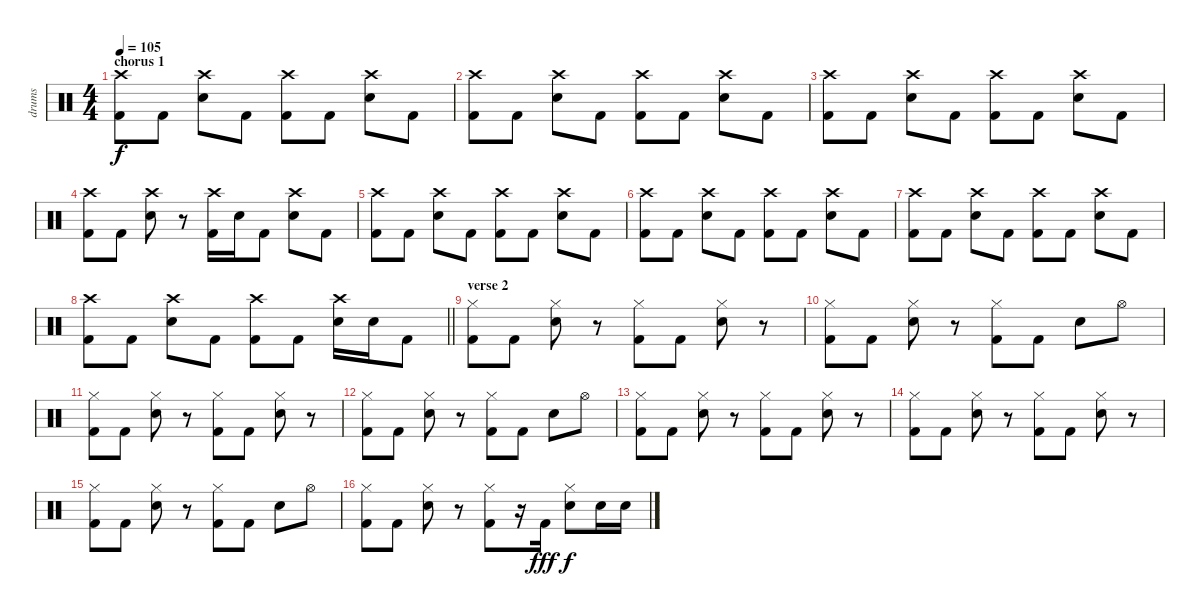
\track ("drums" "drums") {instrument percussion}
\staff {score}
\articulation defaults
\ts (4 4)
\section ("" "chorus 1")
\tempo 105
\clef neutral
\ks c
("Crash high (hit)" "Kick (hit) 2").8{dy f} "Kick (hit) 2".8 ("Crash high (hit)" "Electric Snare (hit)").8 "Kick (hit) 2".8 ("Crash high (hit)" "Kick (hit) 2").8 "Kick (hit) 2".8 ("Crash high (hit)" "Electric Snare (hit)").8 "Kick (hit) 2".8 |
("Crash high (hit)" "Kick (hit) 2").8 "Kick (hit) 2".8 ("Crash high (hit)" "Electric Snare (hit)").8 "Kick (hit) 2".8 ("Crash high (hit)" "Kick (hit) 2").8 "Kick (hit) 2".8 ("Crash high (hit)" "Electric Snare (hit)").8 "Kick (hit) 2".8 |
("Crash high (hit)" "Kick (hit) 2").8 "Kick (hit) 2".8 ("Crash high (hit)" "Electric Snare (hit)").8 "Kick (hit) 2".8 ("Crash high (hit)" "Kick (hit) 2").8 "Kick (hit) 2".8 ("Crash high (hit)" "Electric Snare (hit)").8 "Kick (hit) 2".8 |
("Crash high (hit)" "Kick (hit) 2").8 "Kick (hit) 2".8 ("Crash high (hit)" "Electric Snare (hit)").8 r.8 ("Crash high (hit)" "Kick (hit) 2").16 "Electric Snare (hit)".16 "Kick (hit) 2".8 ("Crash high (hit)" "Electric Snare (hit)").8 "Kick (hit) 2".8 |
("Crash high (hit)" "Kick (hit) 2").8 "Kick (hit) 2".8 ("Crash high (hit)" "Electric Snare (hit)").8 "Kick (hit) 2".8 ("Crash high (hit)" "Kick (hit) 2").8 "Kick (hit) 2".8 ("Crash high (hit)" "Electric Snare (hit)").8 "Kick (hit) 2".8 |
("Crash high (hit)" "Kick (hit) 2").8 "Kick (hit) 2".8 ("Crash high (hit)" "Electric Snare (hit)").8 "Kick (hit) 2".8 ("Crash high (hit)" "Kick (hit) 2").8 "Kick (hit) 2".8 ("Crash high (hit)" "Electric Snare (hit)").8 "Kick (hit) 2".8 |
("Crash high (hit)" "Kick (hit) 2").8 "Kick (hit) 2".8 ("Crash high (hit)" "Electric Snare (hit)").8 "Kick (hit) 2".8 ("Crash high (hit)" "Kick (hit) 2").8 "Kick (hit) 2".8 ("Crash high (hit)" "Electric Snare (hit)").8 "Kick (hit) 2".8 |
\barLineRight lightlight
("Crash high (hit)" "Kick (hit) 2").8 "Kick (hit) 2".8 ("Crash high (hit)" "Electric Snare (hit)").8 "Kick (hit) 2".8 ("Crash high (hit)" "Kick (hit) 2").8 "Kick (hit) 2".8 ("Crash high (hit)" "Electric Snare (hit)").16 "Electric Snare (hit)".16 "Kick (hit) 2".8 |
\section ("" "verse 2")
("Hi-Hat (closed)" "Kick (hit) 2").8 "Kick (hit) 2".8 ("Hi-Hat (closed)" "Electric Snare (hit)").8 r.8 ("Hi-Hat (closed)" "Kick (hit) 2").8 "Kick (hit) 2".8 ("Hi-Hat (closed)" "Electric Snare (hit)").8 r.8 |
("Hi-Hat (closed)" "Kick (hit) 2").8 "Kick (hit) 2".8 ("Hi-Hat (closed)" "Electric Snare (hit)").8 r.8 ("Hi-Hat (closed)" "Kick (hit) 2").8 "Kick (hit) 2".8 "Electric Snare (hit)".8 "Hi-Hat (open)".8 |
("Hi-Hat (closed)" "Kick (hit) 2").8 "Kick (hit) 2".8 ("Hi-Hat (closed)" "Electric Snare (hit)").8 r.8 ("Hi-Hat (closed)" "Kick (hit) 2").8 "Kick (hit) 2".8 ("Hi-Hat (closed)" "Electric Snare (hit)").8 r.8 |
("Hi-Hat (closed)" "Kick (hit) 2").8 "Kick (hit) 2".8 ("Hi-Hat (closed)" "Electric Snare (hit)").8 r.8 ("Hi-Hat (closed)" "Kick (hit) 2").8 "Kick (hit) 2".8 "Electric Snare (hit)".8 "Hi-Hat (open)".8 |
("Hi-Hat (closed)" "Kick (hit) 2").8 "Kick (hit) 2".8 ("Hi-Hat (closed)" "Electric Snare (hit)").8 r.8 ("Hi-Hat (closed)" "Kick (hit) 2").8 "Kick (hit) 2".8 ("Hi-Hat (closed)" "Electric Snare (hit)").8 r.8 |
("Hi-Hat (closed)" "Kick (hit) 2").8 "Kick (hit) 2".8 ("Hi-Hat (closed)" "Electric Snare (hit)").8 r.8 ("Hi-Hat (closed)" "Kick (hit) 2").8 "Kick (hit) 2".8 ("Hi-Hat (closed)" "Electric Snare (hit)").8 r.8 |
("Hi-Hat (closed)" "Kick (hit) 2").8 "Kick (hit) 2".8 ("Hi-Hat (closed)" "Electric Snare (hit)").8 r.8 ("Hi-Hat (closed)" "Kick (hit) 2").8 "Kick (hit) 2".8 "Electric Snare (hit)".8 "Hi-Hat (open)".8 |
("Hi-Hat (closed)" "Kick (hit) 2").8 "Kick (hit) 2".8 ("Hi-Hat (closed)" "Electric Snare (hit)").8 r.8 ("Hi-Hat (closed)" "Kick (hit) 2").8 r.16 "Kick (hit) 2".16{dy fff} ("Hi-Hat (closed)" "Electric Snare (hit)").8{dy f} "Electric Snare (hit)".16 "Electric Snare (hit)".16
